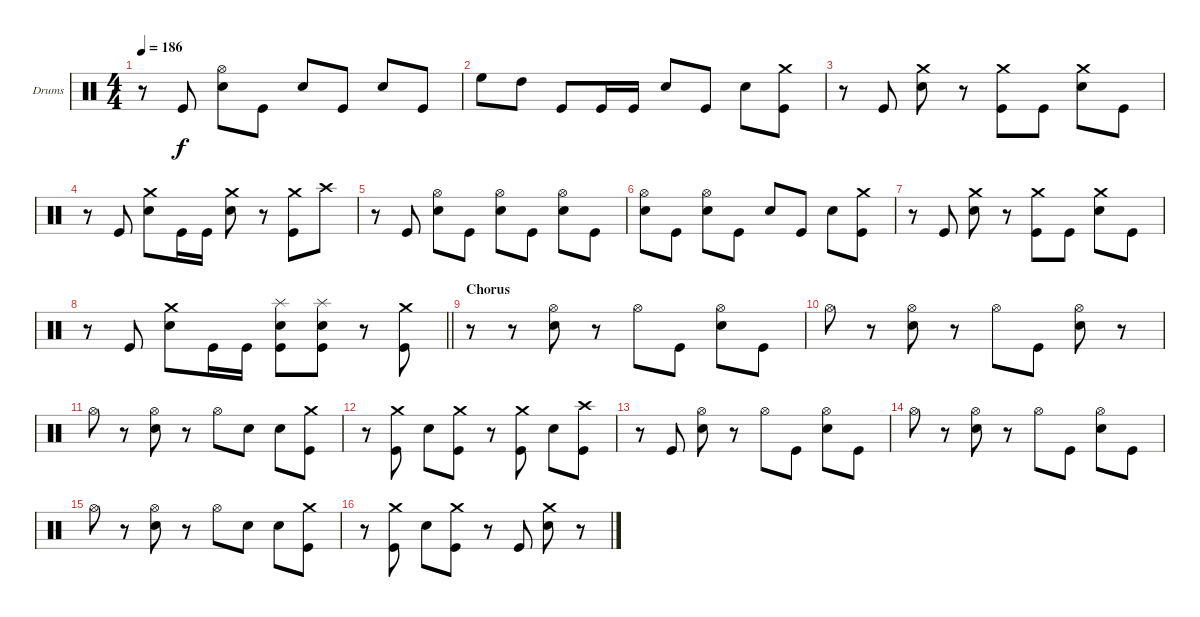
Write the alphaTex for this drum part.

\bracketExtendMode groupsimilarinstruments
\firstSystemTrackNameOrientation horizontal
\otherSystemsTrackNameOrientation horizontal
\track ("Drumkit" "Drums") {instrument percussion}
\staff {score}
\articulation defaults
\ts (4 4)
\tempo 186
\clef neutral
\scale
0.333333
\ks c
r.8{dy f} "Kick (hit)".8 ("Hi-Hat (open)" "Snare (hit) 2").8 "Kick (hit)".8 "Snare (hit) 2".8 "Kick (hit)".8 "Snare (hit) 2".8 "Kick (hit)".8 |
\scale
0.333333 "High Floor Tom (hit)".8 "High Tom (hit)".8 "Kick (hit)".8 "Kick (hit)".16 "Kick (hit)".16 "Snare (hit) 2".8 "Kick (hit)".8 "Snare (hit) 2".8 ("Crash medium (hit)" "Kick (hit)").8 |
\scale
0.333333 r.8 "Kick (hit)".8 ("Crash medium (hit)" "Snare (hit) 2").8 r.8 ("Crash medium (hit)" "Kick (hit)").8 "Kick (hit)".8 ("Crash medium (hit)" "Snare (hit) 2").8 "Kick (hit)".8 |
\scale
0.333333 r.8 "Kick (hit)".8 ("Crash medium (hit)" "Snare (hit) 2").8 "Kick (hit)".16 "Kick (hit)".16 ("Crash medium (hit)" "Snare (hit) 2").8 r.8 ("Crash medium (hit)" "Kick (hit)").8 "Crash high (hit)".8 |
\scale
0.333333 r.8 "Kick (hit)".8 ("Hi-Hat (open)" "Snare (hit) 2").8 "Kick (hit)".8 ("Hi-Hat (open)" "Snare (hit) 2").8 "Kick (hit)".8 ("Hi-Hat (open)" "Snare (hit) 2").8 "Kick (hit)".8 |
\scale
0.333333 ("Hi-Hat (open)" "Snare (hit) 2").8 "Kick (hit)".8 ("Hi-Hat (open)" "Snare (hit) 2").8 "Kick (hit)".8 "Snare (hit) 2".8 "Kick (hit)".8 "Snare (hit) 2".8 ("Crash medium (hit)" "Kick (hit)").8 |
\scale
0.333333 r.8 "Kick (hit)".8 ("Crash medium (hit)" "Snare (hit) 2").8 r.8 ("Crash medium (hit)" "Kick (hit)").8 "Kick (hit)".8 ("Crash medium (hit)" "Snare (hit) 2").8 "Kick (hit)".8 |
\scale
0.333333
\barLineRight lightlight
r.8 "Kick (hit)".8 ("Crash medium (hit)" "Snare (hit) 2").8 "Kick (hit)".16 "Kick (hit)".16 ("Splash (hit)" "Snare (hit) 2" "Kick (hit)").8 ("Splash (hit)" "Snare (hit) 2" "Kick (hit)").8 r.8 ("Crash medium (hit)" "Kick (hit)").8 |
\section ("" "Chorus")
\scale
0.333333 r.8 r.8 ("Hi-Hat (open)" "Snare (hit) 2").8 r.8 "Hi-Hat (open)".8 "Kick (hit)".8 ("Hi-Hat (open)" "Snare (hit) 2").8 "Kick (hit)".8 |
\scale
0.333333 "Hi-Hat (open)".8 r.8 ("Hi-Hat (open)" "Snare (hit) 2").8 r.8 "Hi-Hat (open)".8 "Kick (hit)".8 ("Hi-Hat (open)" "Snare (hit) 2").8 r.8 |
\scale
0.333333 "Hi-Hat (open)".8 r.8 ("Hi-Hat (open)" "Snare (hit) 2").8 r.8 "Hi-Hat (open)".8 "Snare (hit) 2".8 "Snare (hit) 2".8 ("Crash medium (hit)" "Kick (hit)").8 |
\scale
0.333333 r.8 ("Crash medium (hit)" "Kick (hit)").8 "Snare (hit) 2".8 ("Crash medium (hit)" "Kick (hit)").8 r.8 ("Crash medium (hit)" "Kick (hit)").8 "Snare (hit) 2".8 ("Crash high (hit)" "Kick (hit)").8 |
\scale
0.333333 r.8 "Kick (hit)".8 ("Hi-Hat (open)" "Snare (hit) 2").8 r.8 "Hi-Hat (open)".8 "Kick (hit)".8 ("Hi-Hat (open)" "Snare (hit) 2").8 "Kick (hit)".8 |
\scale
0.333333 "Hi-Hat (open)".8 r.8 ("Hi-Hat (open)" "Snare (hit) 2").8 r.8 "Hi-Hat (open)".8 "Kick (hit)".8 ("Hi-Hat (open)" "Snare (hit) 2").8 "Kick (hit)".8 |
\scale
0.333333 "Hi-Hat (open)".8 r.8 ("Hi-Hat (open)" "Snare (hit) 2").8 r.8 "Hi-Hat (open)".8 "Snare (hit) 2".8 "Snare (hit) 2".8 ("Crash medium (hit)" "Kick (hit)").8 |
\scale
0.333333 r.8 ("Crash medium (hit)" "Kick (hit)").8 "Snare (hit) 2".8 ("Crash medium (hit)" "Kick (hit)").8 r.8 "Kick (hit)".8 ("Crash medium (hit)" "Snare (hit) 2").8 r.8
